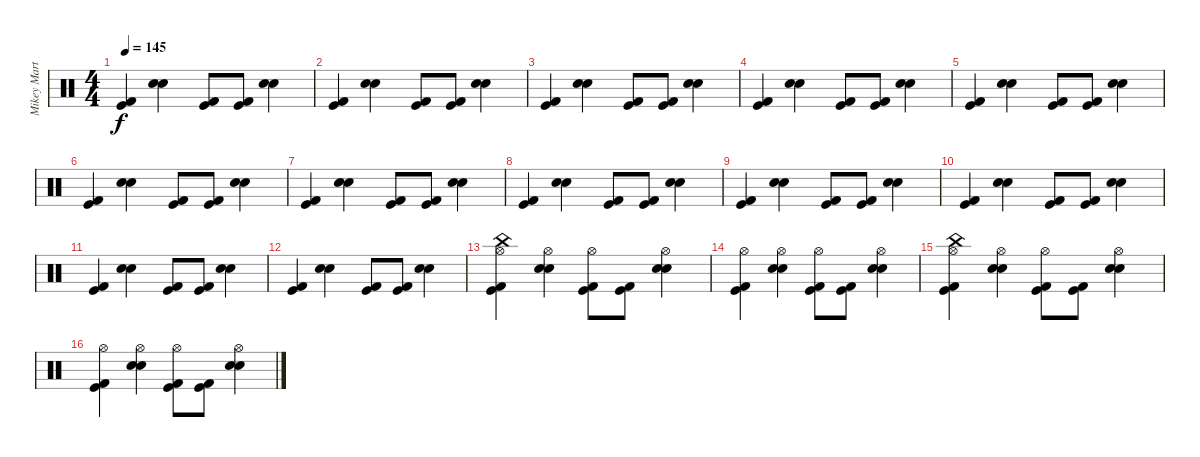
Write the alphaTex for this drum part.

\track ("Mikey Martin" "Mikey Mart") {instrument percussion}
\staff {score}
\articulation defaults
\ts (4 4)
\tempo 145
\clef neutral
\ks c
("Kick (hit)" "Kick (hit) 2").4{dy f} ("Snare (hit) 2" "Electric Snare (hit)").4 ("Kick (hit)" "Kick (hit) 2").8 ("Kick (hit)" "Kick (hit) 2").8 ("Snare (hit) 2" "Electric Snare (hit)").4 |
("Kick (hit)" "Kick (hit) 2").4 ("Snare (hit) 2" "Electric Snare (hit)").4 ("Kick (hit)" "Kick (hit) 2").8 ("Kick (hit)" "Kick (hit) 2").8 ("Snare (hit) 2" "Electric Snare (hit)").4 |
("Kick (hit)" "Kick (hit) 2").4 ("Snare (hit) 2" "Electric Snare (hit)").4 ("Kick (hit)" "Kick (hit) 2").8 ("Kick (hit)" "Kick (hit) 2").8 ("Snare (hit) 2" "Electric Snare (hit)").4 |
("Kick (hit)" "Kick (hit) 2").4 ("Snare (hit) 2" "Electric Snare (hit)").4 ("Kick (hit)" "Kick (hit) 2").8 ("Kick (hit)" "Kick (hit) 2").8 ("Snare (hit) 2" "Electric Snare (hit)").4 |
("Kick (hit)" "Kick (hit) 2").4 ("Snare (hit) 2" "Electric Snare (hit)").4 ("Kick (hit)" "Kick (hit) 2").8 ("Kick (hit)" "Kick (hit) 2").8 ("Snare (hit) 2" "Electric Snare (hit)").4 |
("Kick (hit)" "Kick (hit) 2").4 ("Snare (hit) 2" "Electric Snare (hit)").4 ("Kick (hit)" "Kick (hit) 2").8 ("Kick (hit)" "Kick (hit) 2").8 ("Snare (hit) 2" "Electric Snare (hit)").4 |
("Kick (hit)" "Kick (hit) 2").4 ("Snare (hit) 2" "Electric Snare (hit)").4 ("Kick (hit)" "Kick (hit) 2").8 ("Kick (hit)" "Kick (hit) 2").8 ("Snare (hit) 2" "Electric Snare (hit)").4 |
("Kick (hit)" "Kick (hit) 2").4 ("Snare (hit) 2" "Electric Snare (hit)").4 ("Kick (hit)" "Kick (hit) 2").8 ("Kick (hit)" "Kick (hit) 2").8 ("Snare (hit) 2" "Electric Snare (hit)").4 |
("Kick (hit)" "Kick (hit) 2").4 ("Snare (hit) 2" "Electric Snare (hit)").4 ("Kick (hit)" "Kick (hit) 2").8 ("Kick (hit)" "Kick (hit) 2").8 ("Snare (hit) 2" "Electric Snare (hit)").4 |
("Kick (hit)" "Kick (hit) 2").4 ("Snare (hit) 2" "Electric Snare (hit)").4 ("Kick (hit)" "Kick (hit) 2").8 ("Kick (hit)" "Kick (hit) 2").8 ("Snare (hit) 2" "Electric Snare (hit)").4 |
("Kick (hit)" "Kick (hit) 2").4 ("Snare (hit) 2" "Electric Snare (hit)").4 ("Kick (hit)" "Kick (hit) 2").8 ("Kick (hit)" "Kick (hit) 2").8 ("Snare (hit) 2" "Electric Snare (hit)").4 |
("Kick (hit)" "Kick (hit) 2").4 ("Snare (hit) 2" "Electric Snare (hit)").4 ("Kick (hit)" "Kick (hit) 2").8 ("Kick (hit)" "Kick (hit) 2").8 ("Snare (hit) 2" "Electric Snare (hit)").4 |
("China (hit)" "Hi-Hat (open)" "Kick (hit)" "Kick (hit) 2").4 ("Hi-Hat (open)" "Snare (hit) 2" "Electric Snare (hit)").4 ("Hi-Hat (open)" "Kick (hit)" "Kick (hit) 2").8 ("Kick (hit)" "Kick (hit) 2").8 ("Hi-Hat (open)" "Snare (hit) 2" "Electric Snare (hit)").4 |
("Hi-Hat (open)" "Kick (hit)" "Kick (hit) 2").4 ("Hi-Hat (open)" "Snare (hit) 2" "Electric Snare (hit)").4 ("Hi-Hat (open)" "Kick (hit)" "Kick (hit) 2").8 ("Kick (hit)" "Kick (hit) 2").8 ("Hi-Hat (open)" "Snare (hit) 2" "Electric Snare (hit)").4 |
("China (hit)" "Hi-Hat (open)" "Kick (hit)" "Kick (hit) 2").4 ("Hi-Hat (open)" "Snare (hit) 2" "Electric Snare (hit)").4 ("Hi-Hat (open)" "Kick (hit)" "Kick (hit) 2").8 ("Kick (hit)" "Kick (hit) 2").8 ("Hi-Hat (open)" "Snare (hit) 2" "Electric Snare (hit)").4 |
("Hi-Hat (open)" "Kick (hit)" "Kick (hit) 2").4 ("Hi-Hat (open)" "Snare (hit) 2" "Electric Snare (hit)").4 ("Hi-Hat (open)" "Kick (hit)" "Kick (hit) 2").8 ("Kick (hit)" "Kick (hit) 2").8 ("Hi-Hat (open)" "Snare (hit) 2" "Electric Snare (hit)").4
